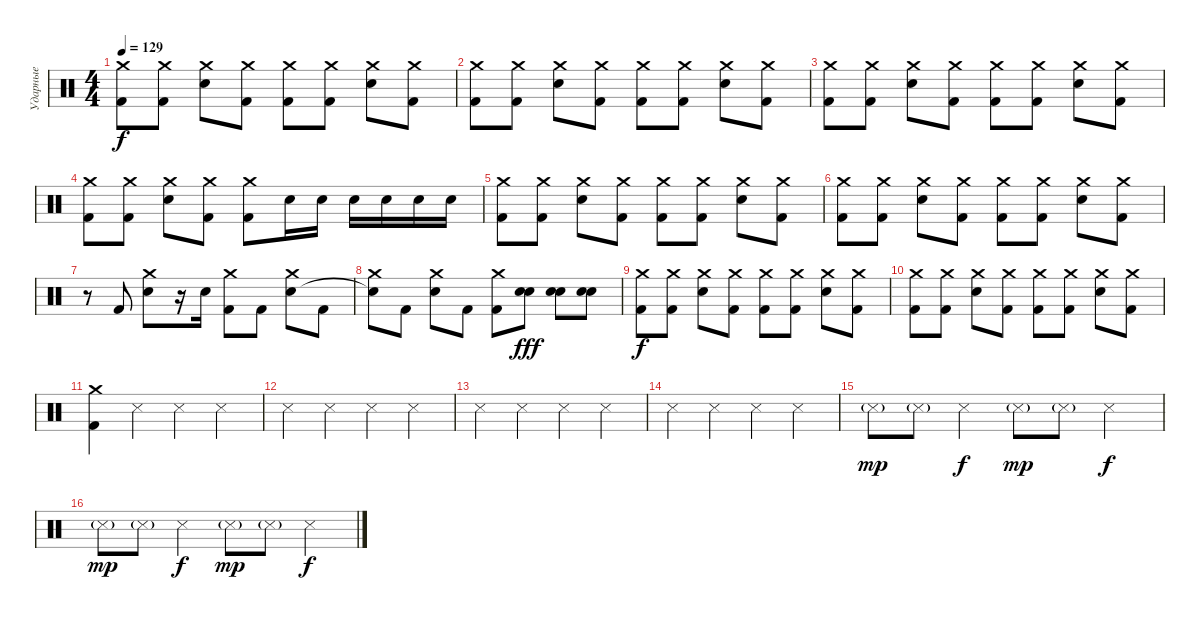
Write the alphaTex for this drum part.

\track ("Ударные" "Ударные") {instrument percussion}
\staff {score}
\articulation defaults
\ts (4 4)
\tempo 129
\clef neutral
\ks c
("Crash medium (hit)" "Kick (hit) 2").8{dy f} ("Crash medium (hit)" "Kick (hit) 2").8 ("Crash medium (hit)" "Electric Snare (hit)").8 ("Crash medium (hit)" "Kick (hit) 2").8 ("Crash medium (hit)" "Kick (hit) 2").8 ("Crash medium (hit)" "Kick (hit) 2").8 ("Crash medium (hit)" "Electric Snare (hit)").8 ("Crash medium (hit)" "Kick (hit) 2").8 |
("Crash medium (hit)" "Kick (hit) 2").8 ("Crash medium (hit)" "Kick (hit) 2").8 ("Crash medium (hit)" "Electric Snare (hit)").8 ("Crash medium (hit)" "Kick (hit) 2").8 ("Crash medium (hit)" "Kick (hit) 2").8 ("Crash medium (hit)" "Kick (hit) 2").8 ("Crash medium (hit)" "Electric Snare (hit)").8 ("Crash medium (hit)" "Kick (hit) 2").8 |
("Crash medium (hit)" "Kick (hit) 2").8 ("Crash medium (hit)" "Kick (hit) 2").8 ("Crash medium (hit)" "Electric Snare (hit)").8 ("Crash medium (hit)" "Kick (hit) 2").8 ("Crash medium (hit)" "Kick (hit) 2").8 ("Crash medium (hit)" "Kick (hit) 2").8 ("Crash medium (hit)" "Electric Snare (hit)").8 ("Crash medium (hit)" "Kick (hit) 2").8 |
("Crash medium (hit)" "Kick (hit) 2").8 ("Crash medium (hit)" "Kick (hit) 2").8 ("Crash medium (hit)" "Electric Snare (hit)").8 ("Crash medium (hit)" "Kick (hit) 2").8 ("Crash medium (hit)" "Kick (hit) 2").8 "Electric Snare (hit)".16 "Electric Snare (hit)".16 "Electric Snare (hit)".16 "Electric Snare (hit)".16 "Electric Snare (hit)".16 "Electric Snare (hit)".16 |
("Crash medium (hit)" "Kick (hit) 2").8 ("Crash medium (hit)" "Kick (hit) 2").8 ("Crash medium (hit)" "Electric Snare (hit)").8 ("Crash medium (hit)" "Kick (hit) 2").8 ("Crash medium (hit)" "Kick (hit) 2").8 ("Crash medium (hit)" "Kick (hit) 2").8 ("Crash medium (hit)" "Electric Snare (hit)").8 ("Crash medium (hit)" "Kick (hit) 2").8 |
("Crash medium (hit)" "Kick (hit) 2").8 ("Crash medium (hit)" "Kick (hit) 2").8 ("Crash medium (hit)" "Electric Snare (hit)").8 ("Crash medium (hit)" "Kick (hit) 2").8 ("Crash medium (hit)" "Kick (hit) 2").8 ("Crash medium (hit)" "Kick (hit) 2").8 ("Crash medium (hit)" "Electric Snare (hit)").8 ("Crash medium (hit)" "Kick (hit) 2").8 |
r.8 "Kick (hit) 2".8 ("Crash medium (hit)" "Electric Snare (hit)").8 r.16 "Electric Snare (hit)".16 ("Crash medium (hit)" "Kick (hit) 2").8 "Kick (hit) 2".8 ("Crash medium (hit)" "Electric Snare (hit)").8 "Kick (hit) 2".8 |
("Crash medium (hit)" "Snare (hit)"{t}).8 "Kick (hit) 2".8 ("Crash medium (hit)" "Electric Snare (hit)").8 "Kick (hit) 2".8 ("Crash medium (hit)" "Kick (hit) 2").8 ("Hand Clap (hit)" "Electric Snare (hit)").8{dy fff} ("Hand Clap (hit)" "Electric Snare (hit)").8 ("Hand Clap (hit)" "Electric Snare (hit)").8 |
("Crash medium (hit)" "Kick (hit) 2").8{dy f} ("Crash medium (hit)" "Kick (hit) 2").8 ("Crash medium (hit)" "Electric Snare (hit)").8 ("Crash medium (hit)" "Kick (hit) 2").8 ("Crash medium (hit)" "Kick (hit) 2").8 ("Crash medium (hit)" "Kick (hit) 2").8 ("Crash medium (hit)" "Electric Snare (hit)").8 ("Crash medium (hit)" "Kick (hit) 2").8 |
("Crash medium (hit)" "Kick (hit) 2").8 ("Crash medium (hit)" "Kick (hit) 2").8 ("Crash medium (hit)" "Electric Snare (hit)").8 ("Crash medium (hit)" "Kick (hit) 2").8 ("Crash medium (hit)" "Kick (hit) 2").8 ("Crash medium (hit)" "Kick (hit) 2").8 ("Crash medium (hit)" "Electric Snare (hit)").8 ("Crash medium (hit)" "Kick (hit) 2").8 |
("Crash medium (hit)" "Kick (hit) 2").4 "Snare (side stick) 3".4 "Snare (side stick) 3".4 "Snare (side stick) 3".4 |
"Snare (side stick) 3".4 "Snare (side stick) 3".4 "Snare (side stick) 3".4 "Snare (side stick) 3".4 |
"Snare (side stick) 3".4 "Snare (side stick) 3".4 "Snare (side stick) 3".4 "Snare (side stick) 3".4 |
"Snare (side stick) 3".4 "Snare (side stick) 3".4 "Snare (side stick) 3".4 "Snare (side stick) 3".4 |
"Snare (side stick) 3"{g}.8{dy mp} "Snare (side stick) 3"{g}.8 "Snare (side stick) 3".4{dy f} "Snare (side stick) 3"{g}.8{dy mp} "Snare (side stick) 3"{g}.8 "Snare (side stick) 3".4{dy f} |
"Snare (side stick) 3"{g}.8{dy mp} "Snare (side stick) 3"{g}.8 "Snare (side stick) 3".4{dy f} "Snare (side stick) 3"{g}.8{dy mp} "Snare (side stick) 3"{g}.8 "Snare (side stick) 3".4{dy f}
